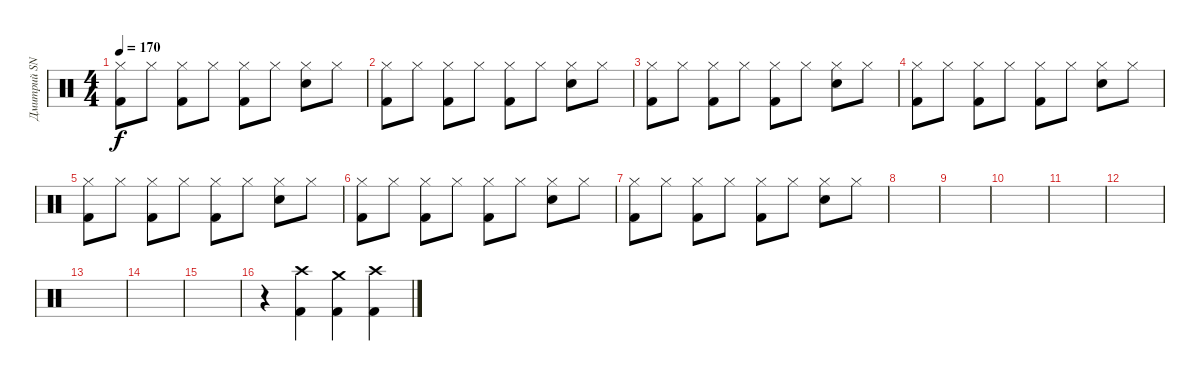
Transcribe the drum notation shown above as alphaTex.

\track ("Дмитрий SNAKE Хакимов" "Дмитрий SN") {instrument percussion}
\staff {score}
\articulation defaults
\ts (4 4)
\tempo 170
\clef neutral
\ks c
("Hi-Hat (closed)" "Kick (hit) 2").8{dy f} "Hi-Hat (closed)".8 ("Hi-Hat (closed)" "Kick (hit) 2").8 "Hi-Hat (closed)".8 ("Hi-Hat (closed)" "Kick (hit) 2").8 "Hi-Hat (closed)".8 ("Hi-Hat (closed)" "Snare (hit) 2").8 "Hi-Hat (closed)".8 |
("Hi-Hat (closed)" "Kick (hit) 2").8 "Hi-Hat (closed)".8 ("Hi-Hat (closed)" "Kick (hit) 2").8 "Hi-Hat (closed)".8 ("Hi-Hat (closed)" "Kick (hit) 2").8 "Hi-Hat (closed)".8 ("Hi-Hat (closed)" "Snare (hit) 2").8 "Hi-Hat (closed)".8 |
("Hi-Hat (closed)" "Kick (hit) 2").8 "Hi-Hat (closed)".8 ("Hi-Hat (closed)" "Kick (hit) 2").8 "Hi-Hat (closed)".8 ("Hi-Hat (closed)" "Kick (hit) 2").8 "Hi-Hat (closed)".8 ("Hi-Hat (closed)" "Snare (hit) 2").8 "Hi-Hat (closed)".8 |
("Hi-Hat (closed)" "Kick (hit) 2").8 "Hi-Hat (closed)".8 ("Hi-Hat (closed)" "Kick (hit) 2").8 "Hi-Hat (closed)".8 ("Hi-Hat (closed)" "Kick (hit) 2").8 "Hi-Hat (closed)".8 ("Hi-Hat (closed)" "Snare (hit) 2").8 "Hi-Hat (closed)".8 |
("Hi-Hat (closed)" "Kick (hit) 2").8 "Hi-Hat (closed)".8 ("Hi-Hat (closed)" "Kick (hit) 2").8 "Hi-Hat (closed)".8 ("Hi-Hat (closed)" "Kick (hit) 2").8 "Hi-Hat (closed)".8 ("Hi-Hat (closed)" "Snare (hit) 2").8 "Hi-Hat (closed)".8 |
("Hi-Hat (closed)" "Kick (hit) 2").8 "Hi-Hat (closed)".8 ("Hi-Hat (closed)" "Kick (hit) 2").8 "Hi-Hat (closed)".8 ("Hi-Hat (closed)" "Kick (hit) 2").8 "Hi-Hat (closed)".8 ("Hi-Hat (closed)" "Snare (hit) 2").8 "Hi-Hat (closed)".8 |
("Hi-Hat (closed)" "Kick (hit) 2").8 "Hi-Hat (closed)".8 ("Hi-Hat (closed)" "Kick (hit) 2").8 "Hi-Hat (closed)".8 ("Hi-Hat (closed)" "Kick (hit) 2").8 "Hi-Hat (closed)".8 ("Hi-Hat (closed)" "Snare (hit) 2").8 "Hi-Hat (closed)".8 |
|
|
|
|
|
|
|
|
r.4 ("Crash high (hit)" "Kick (hit) 2").4 ("Crash medium (hit)" "Kick (hit) 2").4 ("Crash high (hit)" "Kick (hit) 2").4
